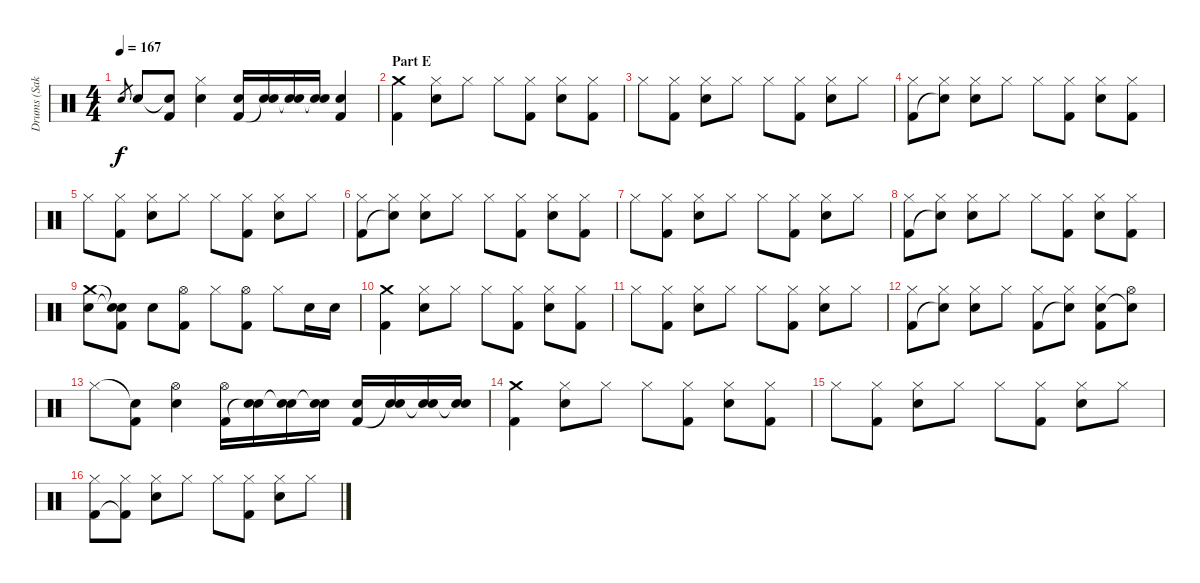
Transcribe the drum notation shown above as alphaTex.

\track ("Drums (Sakura)" "Drums (Sak") {instrument percussion}
\staff {score}
\articulation defaults
\ts (4 4)
\tempo 167
\clef neutral
\ks c "Electric Snare (hit)".8{gr dy f} "Electric Snare (hit)".8
("Snare (hit)"{t} "Kick (hit) 2").8 ("Hi-Hat (closed)" "Electric Snare (hit)").4 ("Electric Snare (hit)" "Kick (hit) 2").16 ("Electric Snare (hit)" "Snare (hit)"{t}).16 ("Electric Snare (hit)" "Snare (hit)"{t}).16 ("Electric Snare (hit)" "Snare (hit)"{t}).16 ("Electric Snare (hit)" "Kick (hit) 2").4 |
\section ("" "Part E")
("Crash medium (hit)" "Kick (hit) 2").4 ("Hi-Hat (closed)" "Electric Snare (hit)").8 "Hi-Hat (closed)".8 "Hi-Hat (closed)".8 ("Hi-Hat (closed)" "Kick (hit) 2").8 ("Hi-Hat (closed)" "Electric Snare (hit)").8 ("Hi-Hat (closed)" "Kick (hit) 2").8 |
"Hi-Hat (closed)".8 ("Hi-Hat (closed)" "Kick (hit) 2").8 ("Hi-Hat (closed)" "Electric Snare (hit)").8 "Hi-Hat (closed)".8 "Hi-Hat (closed)".8 ("Hi-Hat (closed)" "Kick (hit) 2").8 ("Hi-Hat (closed)" "Electric Snare (hit)").8 "Hi-Hat (closed)".8 |
("Hi-Hat (closed)" "Kick (hit) 2").8 ("Hi-Hat (closed)" "Snare (hit)"{t}).8 ("Hi-Hat (closed)" "Electric Snare (hit)").8 "Hi-Hat (closed)".8 "Hi-Hat (closed)".8 ("Hi-Hat (closed)" "Kick (hit) 2").8 ("Hi-Hat (closed)" "Electric Snare (hit)").8 ("Hi-Hat (closed)" "Kick (hit) 2").8 |
"Hi-Hat (closed)".8 ("Hi-Hat (closed)" "Kick (hit) 2").8 ("Hi-Hat (closed)" "Electric Snare (hit)").8 "Hi-Hat (closed)".8 "Hi-Hat (closed)".8 ("Hi-Hat (closed)" "Kick (hit) 2").8 ("Hi-Hat (closed)" "Electric Snare (hit)").8 "Hi-Hat (closed)".8 |
("Hi-Hat (closed)" "Kick (hit) 2").8 ("Hi-Hat (closed)" "Snare (hit)"{t}).8 ("Hi-Hat (closed)" "Electric Snare (hit)").8 "Hi-Hat (closed)".8 "Hi-Hat (closed)".8 ("Hi-Hat (closed)" "Kick (hit) 2").8 ("Hi-Hat (closed)" "Electric Snare (hit)").8 ("Hi-Hat (closed)" "Kick (hit) 2").8 |
"Hi-Hat (closed)".8 ("Hi-Hat (closed)" "Kick (hit) 2").8 ("Hi-Hat (closed)" "Electric Snare (hit)").8 "Hi-Hat (closed)".8 "Hi-Hat (closed)".8 ("Hi-Hat (closed)" "Kick (hit) 2").8 ("Hi-Hat (closed)" "Electric Snare (hit)").8 "Hi-Hat (closed)".8 |
("Hi-Hat (closed)" "Kick (hit) 2").8 ("Hi-Hat (closed)" "Snare (hit)"{t}).8 ("Hi-Hat (closed)" "Electric Snare (hit)").8 "Hi-Hat (closed)".8 "Hi-Hat (closed)".8 ("Hi-Hat (closed)" "Kick (hit) 2").8 ("Hi-Hat (closed)" "Electric Snare (hit)").8 ("Hi-Hat (closed)" "Kick (hit) 2").8 |
("Crash medium (hit)" "Electric Snare (hit)").8 ("Snare (hit)"{t} "Snare (hit)"{t} "Kick (hit) 2").8 "Electric Snare (hit)".8 ("Hi-Hat (open)" "Kick (hit) 2").8 "Hi-Hat (closed)".8 ("Hi-Hat (open)" "Kick (hit) 2").8 "Hi-Hat (closed)".8 "Electric Snare (hit)".16 "Electric Snare (hit)".16 |
("Crash medium (hit)" "Kick (hit) 2").4 ("Hi-Hat (closed)" "Electric Snare (hit)").8 "Hi-Hat (closed)".8 "Hi-Hat (closed)".8 ("Hi-Hat (closed)" "Kick (hit) 2").8 ("Hi-Hat (closed)" "Electric Snare (hit)").8 ("Hi-Hat (closed)" "Kick (hit) 2").8 |
"Hi-Hat (closed)".8 ("Hi-Hat (closed)" "Kick (hit) 2").8 ("Hi-Hat (closed)" "Electric Snare (hit)").8 "Hi-Hat (closed)".8 "Hi-Hat (closed)".8 ("Hi-Hat (closed)" "Kick (hit) 2").8 ("Hi-Hat (closed)" "Electric Snare (hit)").8 "Hi-Hat (closed)".8 |
("Hi-Hat (closed)" "Kick (hit) 2").8 ("Hi-Hat (closed)" "Snare (hit)"{t}).8 ("Hi-Hat (closed)" "Electric Snare (hit)").8 "Hi-Hat (closed)".8 ("Hi-Hat (closed)" "Kick (hit) 2").8 ("Hi-Hat (closed)" "Snare (hit)"{t}).8 ("Hi-Hat (closed)" "Electric Snare (hit)" "Kick (hit) 2").8 ("Hi-Hat (open)" "Snare (hit)"{t}).8 |
"Hi-Hat (closed)".8 ("Snare (hit)"{t} "Kick (hit) 2").8 ("Hi-Hat (open)" "Electric Snare (hit)").4 ("Hi-Hat (open)" "Kick (hit) 2").16 ("Electric Snare (hit)" "Snare (hit)"{t}).16 ("Electric Snare (hit)" "Snare (hit)"{t}).16 ("Electric Snare (hit)" "Snare (hit)"{t}).16 ("Electric Snare (hit)" "Kick (hit) 2").16 ("Electric Snare (hit)" "Snare (hit)"{t}).16 ("Electric Snare (hit)" "Snare (hit)"{t}).16 ("Electric Snare (hit)" "Snare (hit)"{t}).16 |
("Crash medium (hit)" "Kick (hit) 2").4 ("Hi-Hat (closed)" "Electric Snare (hit)").8 "Hi-Hat (closed)".8 "Hi-Hat (closed)".8 ("Hi-Hat (closed)" "Kick (hit) 2").8 ("Hi-Hat (closed)" "Electric Snare (hit)").8 ("Hi-Hat (closed)" "Kick (hit) 2").8 |
"Hi-Hat (closed)".8 ("Hi-Hat (closed)" "Kick (hit) 2").8 ("Hi-Hat (closed)" "Electric Snare (hit)").8 "Hi-Hat (closed)".8 "Hi-Hat (closed)".8 ("Hi-Hat (closed)" "Kick (hit) 2").8 ("Hi-Hat (closed)" "Electric Snare (hit)").8 "Hi-Hat (closed)".8 |
("Hi-Hat (closed)" "Kick (hit) 2").8 ("Hi-Hat (closed)" "Kick (hit) 2"{t}).8 ("Hi-Hat (closed)" "Electric Snare (hit)").8 "Hi-Hat (closed)".8 "Hi-Hat (closed)".8 ("Hi-Hat (closed)" "Kick (hit) 2").8 ("Hi-Hat (closed)" "Electric Snare (hit)").8 "Hi-Hat (closed)".8
